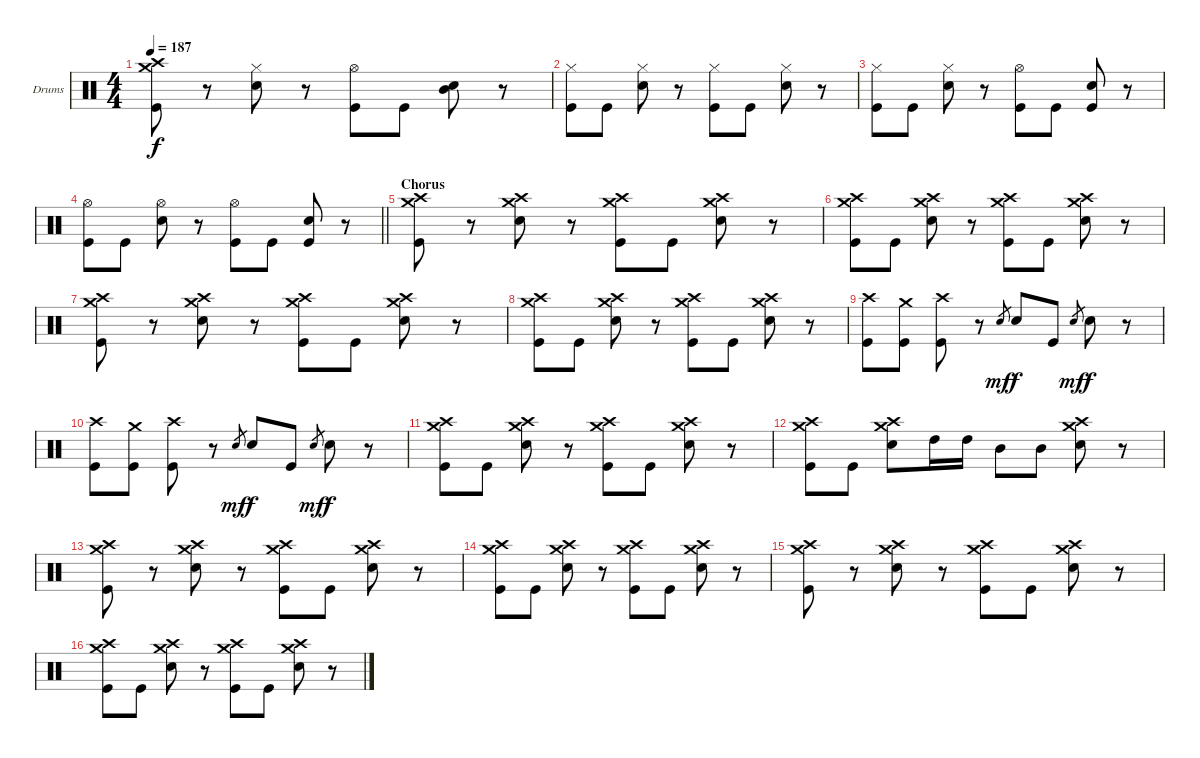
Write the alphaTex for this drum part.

\bracketExtendMode groupsimilarinstruments
\firstSystemTrackNameOrientation horizontal
\otherSystemsTrackNameOrientation horizontal
\track ("Rian Dawson" "Drums") {instrument percussion}
\staff {score}
\articulation defaults
\ts (4 4)
\tempo 187
\clef neutral
\ks c
("Crash medium (hit)" "Crash high (hit)" "Kick (hit)").8{dy f} r.8 ("Hi-Hat (closed)" "Snare (hit) 2").8 r.8 ("Hi-Hat (open)" "Kick (hit)").8 "Kick (hit)".8 ("Snare (hit) 2" "Mid Tom (hit)").8 r.8 |
("Hi-Hat (closed)" "Kick (hit)").8 "Kick (hit)".8 ("Hi-Hat (closed)" "Snare (hit) 2").8 r.8 ("Hi-Hat (closed)" "Kick (hit)").8 "Kick (hit)".8 ("Hi-Hat (closed)" "Snare (hit) 2").8 r.8 |
("Hi-Hat (closed)" "Kick (hit)").8 "Kick (hit)".8 ("Hi-Hat (closed)" "Snare (hit) 2").8 r.8 ("Hi-Hat (open)" "Kick (hit)").8 "Kick (hit)".8 ("Snare (hit) 2" "Kick (hit)").8 r.8 |
\barLineRight lightlight
("Hi-Hat (open)" "Kick (hit)").8 "Kick (hit)".8 ("Hi-Hat (open)" "Snare (hit) 2").8 r.8 ("Hi-Hat (open)" "Kick (hit)").8 "Kick (hit)".8 ("Snare (hit) 2" "Kick (hit)").8 r.8 |
\section ("" "Chorus")
("Crash medium (hit)" "Crash high (hit)" "Kick (hit)").8 r.8 ("Crash medium (hit)" "Crash high (hit)" "Snare (hit) 2").8 r.8 ("Crash medium (hit)" "Crash high (hit)" "Kick (hit)").8 "Kick (hit)".8 ("Crash medium (hit)" "Crash high (hit)" "Snare (hit) 2").8 r.8 |
("Crash medium (hit)" "Crash high (hit)" "Kick (hit)").8 "Kick (hit)".8 ("Crash medium (hit)" "Crash high (hit)" "Snare (hit) 2").8 r.8 ("Crash medium (hit)" "Crash high (hit)" "Kick (hit)").8 "Kick (hit)".8 ("Crash medium (hit)" "Crash high (hit)" "Snare (hit) 2").8 r.8 |
("Crash medium (hit)" "Crash high (hit)" "Kick (hit)").8 r.8 ("Crash medium (hit)" "Crash high (hit)" "Snare (hit) 2").8 r.8 ("Crash medium (hit)" "Crash high (hit)" "Kick (hit)").8 "Kick (hit)".8 ("Crash medium (hit)" "Crash high (hit)" "Snare (hit) 2").8 r.8 |
("Crash medium (hit)" "Crash high (hit)" "Kick (hit)").8 "Kick (hit)".8 ("Crash medium (hit)" "Crash high (hit)" "Snare (hit) 2").8 r.8 ("Crash medium (hit)" "Crash high (hit)" "Kick (hit)").8 "Kick (hit)".8 ("Crash medium (hit)" "Crash high (hit)" "Snare (hit) 2").8 r.8 |
("Crash high (hit)" "Kick (hit)").8 ("Crash medium (hit)" "Kick (hit)").8 ("Crash high (hit)" "Kick (hit)").8 r.8 "Snare (hit) 2".8{gr dy mf} "Snare (hit) 2".8{dy f} "Kick (hit)".8 "Snare (hit) 2".8{gr dy mf} "Snare (hit) 2".8{dy f} r.8 |
("Crash high (hit)" "Kick (hit)").8 ("Crash medium (hit)" "Kick (hit)").8 ("Crash high (hit)" "Kick (hit)").8 r.8 "Snare (hit) 2".8{gr dy mf} "Snare (hit) 2".8{dy f} "Kick (hit)".8 "Snare (hit) 2".8{gr dy mf} "Snare (hit) 2".8{dy f} r.8 |
("Crash medium (hit)" "Crash high (hit)" "Kick (hit)").8 "Kick (hit)".8 ("Crash medium (hit)" "Crash high (hit)" "Snare (hit) 2").8 r.8 ("Crash medium (hit)" "Crash high (hit)" "Kick (hit)").8 "Kick (hit)".8 ("Crash medium (hit)" "Crash high (hit)" "Snare (hit) 2").8 r.8 |
("Crash medium (hit)" "Crash high (hit)" "Kick (hit)").8 "Kick (hit)".8 ("Crash medium (hit)" "Crash high (hit)" "Snare (hit) 2").8 "High Tom (hit)".16 "High Tom (hit)".16 "Mid Tom (hit)".8 "Mid Tom (hit)".8 ("Crash medium (hit)" "Crash high (hit)" "Snare (hit) 2").8 r.8 |
("Crash medium (hit)" "Crash high (hit)" "Kick (hit)").8 r.8 ("Crash medium (hit)" "Crash high (hit)" "Snare (hit) 2").8 r.8 ("Crash medium (hit)" "Crash high (hit)" "Kick (hit)").8 "Kick (hit)".8 ("Crash medium (hit)" "Crash high (hit)" "Snare (hit) 2").8 r.8 |
("Crash medium (hit)" "Crash high (hit)" "Kick (hit)").8 "Kick (hit)".8 ("Crash medium (hit)" "Crash high (hit)" "Snare (hit) 2").8 r.8 ("Crash medium (hit)" "Crash high (hit)" "Kick (hit)").8 "Kick (hit)".8 ("Crash medium (hit)" "Crash high (hit)" "Snare (hit) 2").8 r.8 |
("Crash medium (hit)" "Crash high (hit)" "Kick (hit)").8 r.8 ("Crash medium (hit)" "Crash high (hit)" "Snare (hit) 2").8 r.8 ("Crash medium (hit)" "Crash high (hit)" "Kick (hit)").8 "Kick (hit)".8 ("Crash medium (hit)" "Crash high (hit)" "Snare (hit) 2").8 r.8 |
("Crash medium (hit)" "Crash high (hit)" "Kick (hit)").8 "Kick (hit)".8 ("Crash medium (hit)" "Crash high (hit)" "Snare (hit) 2").8 r.8 ("Crash medium (hit)" "Crash high (hit)" "Kick (hit)").8 "Kick (hit)".8 ("Crash medium (hit)" "Crash high (hit)" "Snare (hit) 2").8 r.8
